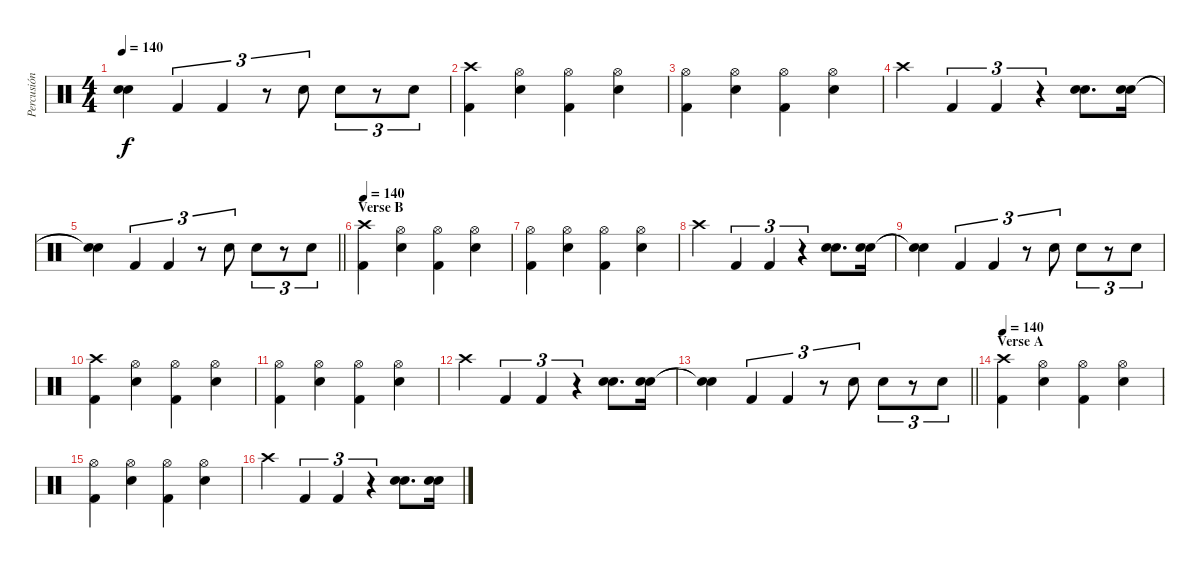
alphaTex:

\track ("Percusión" "Percusión") {instrument percussion}
\staff {score}
\articulation defaults
\ts (4 4)
\tempo 140
\clef neutral
\ks c
("Snare (hit)"{t} "Snare (hit)"{t}).4{dy f} "Kick (hit) 2".4{tu (3 2)} "Kick (hit) 2".4{tu (3 2)} r.8{tu (3 2)} "Snare (hit) 2".8{tu (3 2)} "Snare (hit) 2".8{tu (3 2)} r.8{tu (3 2)} "Snare (hit) 2".8{tu (3 2)} |
("Crash high (hit)" "Kick (hit) 2").4 ("Hi-Hat (open)" "Electric Snare (hit)").4 ("Hi-Hat (open)" "Kick (hit) 2").4 ("Hi-Hat (open)" "Electric Snare (hit)").4 |
("Hi-Hat (open)" "Kick (hit) 2").4 ("Hi-Hat (open)" "Electric Snare (hit)").4 ("Hi-Hat (open)" "Kick (hit) 2").4 ("Hi-Hat (open)" "Electric Snare (hit)").4 |
"Crash high (hit)".4 "Kick (hit) 2".4{tu (3 2)} "Kick (hit) 2".4{tu (3 2)} r.4{tu (3 2)} ("Electric Snare (hit)" "Snare (hit) 2").8{d} ("Electric Snare (hit)" "Snare (hit) 2").16 |
\barLineRight lightlight
("Snare (hit)"{t} "Snare (hit)"{t}).4 "Kick (hit) 2".4{tu (3 2)} "Kick (hit) 2".4{tu (3 2)} r.8{tu (3 2)} "Snare (hit) 2".8{tu (3 2)} "Snare (hit) 2".8{tu (3 2)} r.8{tu (3 2)} "Snare (hit) 2".8{tu (3 2)} |
\section ("" "Verse B")
\tempo 140
("Crash high (hit)" "Kick (hit) 2").4 ("Hi-Hat (open)" "Electric Snare (hit)").4 ("Hi-Hat (open)" "Kick (hit) 2").4 ("Hi-Hat (open)" "Electric Snare (hit)").4 |
("Hi-Hat (open)" "Kick (hit) 2").4 ("Hi-Hat (open)" "Electric Snare (hit)").4 ("Hi-Hat (open)" "Kick (hit) 2").4 ("Hi-Hat (open)" "Electric Snare (hit)").4 |
"Crash high (hit)".4 "Kick (hit) 2".4{tu (3 2)} "Kick (hit) 2".4{tu (3 2)} r.4{tu (3 2)} ("Electric Snare (hit)" "Snare (hit) 2").8{d} ("Electric Snare (hit)" "Snare (hit) 2").16 |
("Snare (hit)"{t} "Snare (hit)"{t}).4 "Kick (hit) 2".4{tu (3 2)} "Kick (hit) 2".4{tu (3 2)} r.8{tu (3 2)} "Snare (hit) 2".8{tu (3 2)} "Snare (hit) 2".8{tu (3 2)} r.8{tu (3 2)} "Snare (hit) 2".8{tu (3 2)} |
("Crash high (hit)" "Kick (hit) 2").4 ("Hi-Hat (open)" "Electric Snare (hit)").4 ("Hi-Hat (open)" "Kick (hit) 2").4 ("Hi-Hat (open)" "Electric Snare (hit)").4 |
("Hi-Hat (open)" "Kick (hit) 2").4 ("Hi-Hat (open)" "Electric Snare (hit)").4 ("Hi-Hat (open)" "Kick (hit) 2").4 ("Hi-Hat (open)" "Electric Snare (hit)").4 |
"Crash high (hit)".4 "Kick (hit) 2".4{tu (3 2)} "Kick (hit) 2".4{tu (3 2)} r.4{tu (3 2)} ("Electric Snare (hit)" "Snare (hit) 2").8{d} ("Electric Snare (hit)" "Snare (hit) 2").16 |
\barLineRight lightlight
("Snare (hit)"{t} "Snare (hit)"{t}).4 "Kick (hit) 2".4{tu (3 2)} "Kick (hit) 2".4{tu (3 2)} r.8{tu (3 2)} "Snare (hit) 2".8{tu (3 2)} "Snare (hit) 2".8{tu (3 2)} r.8{tu (3 2)} "Snare (hit) 2".8{tu (3 2)} |
\section ("" "Verse A")
\tempo 140
("Crash high (hit)" "Kick (hit) 2").4 ("Hi-Hat (open)" "Electric Snare (hit)").4 ("Hi-Hat (open)" "Kick (hit) 2").4 ("Hi-Hat (open)" "Electric Snare (hit)").4 |
("Hi-Hat (open)" "Kick (hit) 2").4 ("Hi-Hat (open)" "Electric Snare (hit)").4 ("Hi-Hat (open)" "Kick (hit) 2").4 ("Hi-Hat (open)" "Electric Snare (hit)").4 |
"Crash high (hit)".4 "Kick (hit) 2".4{tu (3 2)} "Kick (hit) 2".4{tu (3 2)} r.4{tu (3 2)} ("Electric Snare (hit)" "Snare (hit) 2").8{d} ("Electric Snare (hit)" "Snare (hit) 2").16
